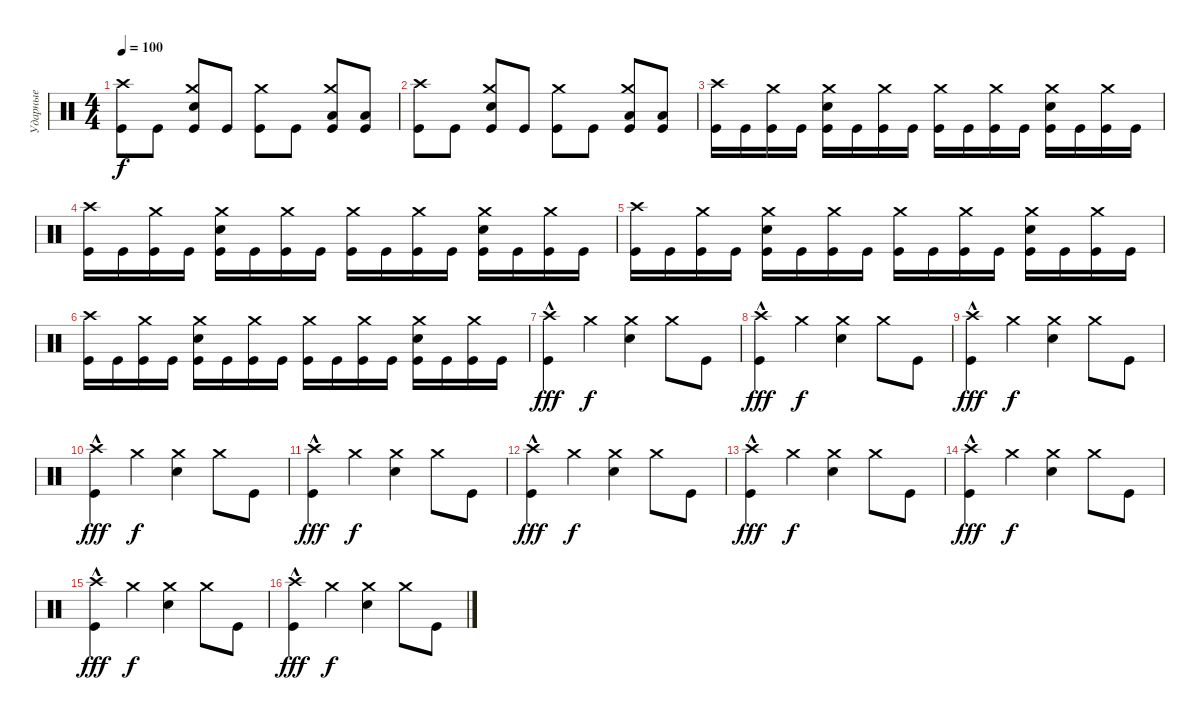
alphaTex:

\track ("Ударные" "Ударные") {instrument percussion}
\staff {score}
\articulation defaults
\ts (4 4)
\tempo 100
\clef neutral
\ks c
("Crash high (hit)" "Kick (hit)").8{dy f} "Kick (hit)".8 ("Crash medium (hit)" "Electric Snare (hit)" "Kick (hit)").8 "Kick (hit)".8 ("Crash medium (hit)" "Kick (hit)").8 "Kick (hit)".8 ("Crash medium (hit)" "Low Floor Tom (hit)" "Kick (hit)").8 ("Low Floor Tom (hit)" "Kick (hit)").8 |
("Crash high (hit)" "Kick (hit)").8 "Kick (hit)".8 ("Crash medium (hit)" "Electric Snare (hit)" "Kick (hit)").8 "Kick (hit)".8 ("Crash medium (hit)" "Kick (hit)").8 "Kick (hit)".8 ("Crash medium (hit)" "Low Floor Tom (hit)" "Kick (hit)").8 ("Low Floor Tom (hit)" "Kick (hit)").8 |
("Crash high (hit)" "Kick (hit)").16 "Kick (hit)".16 ("Crash medium (hit)" "Kick (hit)").16 "Kick (hit)".16 ("Crash medium (hit)" "Electric Snare (hit)" "Kick (hit)").16 "Kick (hit)".16 ("Crash medium (hit)" "Kick (hit)").16 "Kick (hit)".16 ("Crash medium (hit)" "Kick (hit)").16 "Kick (hit)".16 ("Crash medium (hit)" "Kick (hit)").16 "Kick (hit)".16 ("Crash medium (hit)" "Electric Snare (hit)" "Kick (hit)").16 "Kick (hit)".16 ("Crash medium (hit)" "Kick (hit)").16 "Kick (hit)".16 |
("Crash high (hit)" "Kick (hit)").16 "Kick (hit)".16 ("Crash medium (hit)" "Kick (hit)").16 "Kick (hit)".16 ("Crash medium (hit)" "Electric Snare (hit)" "Kick (hit)").16 "Kick (hit)".16 ("Crash medium (hit)" "Kick (hit)").16 "Kick (hit)".16 ("Crash medium (hit)" "Kick (hit)").16 "Kick (hit)".16 ("Crash medium (hit)" "Kick (hit)").16 "Kick (hit)".16 ("Crash medium (hit)" "Electric Snare (hit)" "Kick (hit)").16 "Kick (hit)".16 ("Crash medium (hit)" "Kick (hit)").16 "Kick (hit)".16 |
("Crash high (hit)" "Kick (hit)").16 "Kick (hit)".16 ("Crash medium (hit)" "Kick (hit)").16 "Kick (hit)".16 ("Crash medium (hit)" "Electric Snare (hit)" "Kick (hit)").16 "Kick (hit)".16 ("Crash medium (hit)" "Kick (hit)").16 "Kick (hit)".16 ("Crash medium (hit)" "Kick (hit)").16 "Kick (hit)".16 ("Crash medium (hit)" "Kick (hit)").16 "Kick (hit)".16 ("Crash medium (hit)" "Electric Snare (hit)" "Kick (hit)").16 "Kick (hit)".16 ("Crash medium (hit)" "Kick (hit)").16 "Kick (hit)".16 |
("Crash high (hit)" "Kick (hit)").16 "Kick (hit)".16 ("Crash medium (hit)" "Kick (hit)").16 "Kick (hit)".16 ("Crash medium (hit)" "Electric Snare (hit)" "Kick (hit)").16 "Kick (hit)".16 ("Crash medium (hit)" "Kick (hit)").16 "Kick (hit)".16 ("Crash medium (hit)" "Kick (hit)").16 "Kick (hit)".16 ("Crash medium (hit)" "Kick (hit)").16 "Kick (hit)".16 ("Crash medium (hit)" "Electric Snare (hit)" "Kick (hit)").16 "Kick (hit)".16 ("Crash medium (hit)" "Kick (hit)").16 "Kick (hit)".16 |
("Crash high (hit)"{hac} "Kick (hit)"{hac}).4{dy fff} "Crash medium (hit)".4{dy f} ("Crash medium (hit)" "Electric Snare (hit)").4 "Crash medium (hit)".8 "Kick (hit)".8 |
("Crash high (hit)"{hac} "Kick (hit)"{hac}).4{dy fff} "Crash medium (hit)".4{dy f} ("Crash medium (hit)" "Electric Snare (hit)").4 "Crash medium (hit)".8 "Kick (hit)".8 |
("Crash high (hit)"{hac} "Kick (hit)"{hac}).4{dy fff} "Crash medium (hit)".4{dy f} ("Crash medium (hit)" "Electric Snare (hit)").4 "Crash medium (hit)".8 "Kick (hit)".8 |
("Crash high (hit)"{hac} "Kick (hit)"{hac}).4{dy fff} "Crash medium (hit)".4{dy f} ("Crash medium (hit)" "Electric Snare (hit)").4 "Crash medium (hit)".8 "Kick (hit)".8 |
("Crash high (hit)"{hac} "Kick (hit)"{hac}).4{dy fff} "Crash medium (hit)".4{dy f} ("Crash medium (hit)" "Electric Snare (hit)").4 "Crash medium (hit)".8 "Kick (hit)".8 |
("Crash high (hit)"{hac} "Kick (hit)"{hac}).4{dy fff} "Crash medium (hit)".4{dy f} ("Crash medium (hit)" "Electric Snare (hit)").4 "Crash medium (hit)".8 "Kick (hit)".8 |
("Crash high (hit)"{hac} "Kick (hit)"{hac}).4{dy fff} "Crash medium (hit)".4{dy f} ("Crash medium (hit)" "Electric Snare (hit)").4 "Crash medium (hit)".8 "Kick (hit)".8 |
("Crash high (hit)"{hac} "Kick (hit)"{hac}).4{dy fff} "Crash medium (hit)".4{dy f} ("Crash medium (hit)" "Electric Snare (hit)").4 "Crash medium (hit)".8 "Kick (hit)".8 |
("Crash high (hit)"{hac} "Kick (hit)"{hac}).4{dy fff} "Crash medium (hit)".4{dy f} ("Crash medium (hit)" "Electric Snare (hit)").4 "Crash medium (hit)".8 "Kick (hit)".8 |
("Crash high (hit)"{hac} "Kick (hit)"{hac}).4{dy fff} "Crash medium (hit)".4{dy f} ("Crash medium (hit)" "Electric Snare (hit)").4 "Crash medium (hit)".8 "Kick (hit)".8
